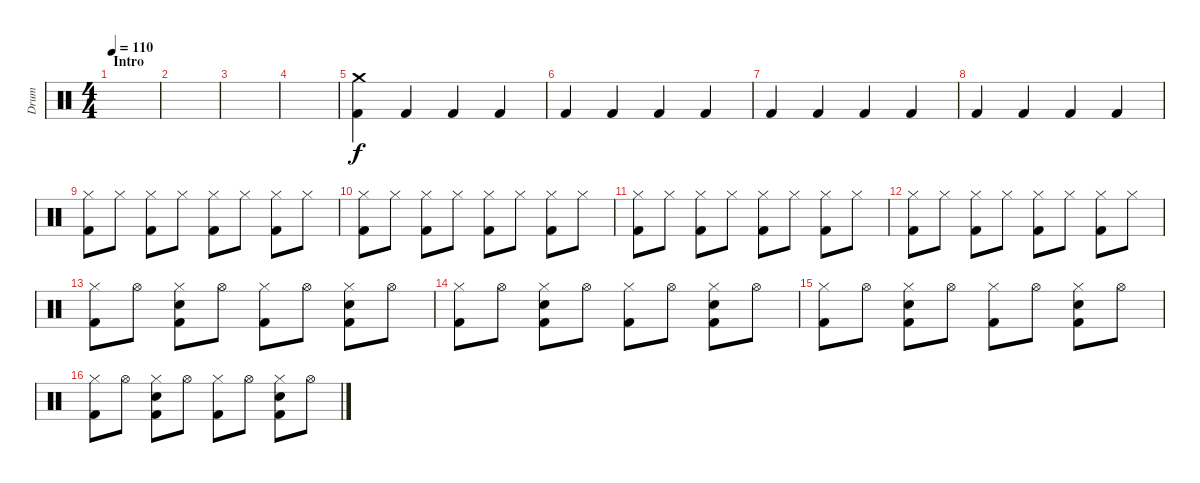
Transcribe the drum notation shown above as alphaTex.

\track ("Drum" "Drum") {instrument percussion}
\staff {score}
\articulation defaults
\ts (4 4)
\section ("" "Intro")
\tempo 110
\clef neutral
\ks c
|
|
|
|
("Crash medium (hit)" "Kick (hit) 2").4 "Kick (hit) 2".4 "Kick (hit) 2".4 "Kick (hit) 2".4 |
"Kick (hit) 2".4 "Kick (hit) 2".4 "Kick (hit) 2".4 "Kick (hit) 2".4 |
"Kick (hit) 2".4 "Kick (hit) 2".4 "Kick (hit) 2".4 "Kick (hit) 2".4 |
"Kick (hit) 2".4 "Kick (hit) 2".4 "Kick (hit) 2".4 "Kick (hit) 2".4 |
("Hi-Hat (closed)" "Kick (hit) 2").8 "Hi-Hat (closed)".8 ("Hi-Hat (closed)" "Kick (hit) 2").8 "Hi-Hat (closed)".8 ("Hi-Hat (closed)" "Kick (hit) 2").8 "Hi-Hat (closed)".8 ("Hi-Hat (closed)" "Kick (hit) 2").8 "Hi-Hat (closed)".8 |
("Hi-Hat (closed)" "Kick (hit) 2").8 "Hi-Hat (closed)".8 ("Hi-Hat (closed)" "Kick (hit) 2").8 "Hi-Hat (closed)".8 ("Hi-Hat (closed)" "Kick (hit) 2").8 "Hi-Hat (closed)".8 ("Hi-Hat (closed)" "Kick (hit) 2").8 "Hi-Hat (closed)".8 |
("Hi-Hat (closed)" "Kick (hit) 2").8 "Hi-Hat (closed)".8 ("Hi-Hat (closed)" "Kick (hit) 2").8 "Hi-Hat (closed)".8 ("Hi-Hat (closed)" "Kick (hit) 2").8 "Hi-Hat (closed)".8 ("Hi-Hat (closed)" "Kick (hit) 2").8 "Hi-Hat (closed)".8 |
("Hi-Hat (closed)" "Kick (hit) 2").8 "Hi-Hat (closed)".8 ("Hi-Hat (closed)" "Kick (hit) 2").8 "Hi-Hat (closed)".8 ("Hi-Hat (closed)" "Kick (hit) 2").8 "Hi-Hat (closed)".8 ("Hi-Hat (closed)" "Kick (hit) 2").8 "Hi-Hat (closed)".8 |
("Hi-Hat (closed)" "Kick (hit) 2").8 "Hi-Hat (open)".8 ("Hi-Hat (closed)" "Electric Snare (hit)" "Kick (hit) 2").8 "Hi-Hat (open)".8 ("Hi-Hat (closed)" "Kick (hit) 2").8 "Hi-Hat (open)".8 ("Hi-Hat (closed)" "Electric Snare (hit)" "Kick (hit) 2").8 "Hi-Hat (open)".8 |
("Hi-Hat (closed)" "Kick (hit) 2").8 "Hi-Hat (open)".8 ("Hi-Hat (closed)" "Electric Snare (hit)" "Kick (hit) 2").8 "Hi-Hat (open)".8 ("Hi-Hat (closed)" "Kick (hit) 2").8 "Hi-Hat (open)".8 ("Hi-Hat (closed)" "Electric Snare (hit)" "Kick (hit) 2").8 "Hi-Hat (open)".8 |
("Hi-Hat (closed)" "Kick (hit) 2").8 "Hi-Hat (open)".8 ("Hi-Hat (closed)" "Electric Snare (hit)" "Kick (hit) 2").8 "Hi-Hat (open)".8 ("Hi-Hat (closed)" "Kick (hit) 2").8 "Hi-Hat (open)".8 ("Hi-Hat (closed)" "Electric Snare (hit)" "Kick (hit) 2").8 "Hi-Hat (open)".8 |
("Hi-Hat (closed)" "Kick (hit) 2").8 "Hi-Hat (open)".8 ("Hi-Hat (closed)" "Electric Snare (hit)" "Kick (hit) 2").8 "Hi-Hat (open)".8 ("Hi-Hat (closed)" "Kick (hit) 2").8 "Hi-Hat (open)".8 ("Hi-Hat (closed)" "Electric Snare (hit)" "Kick (hit) 2").8 "Hi-Hat (open)".8
